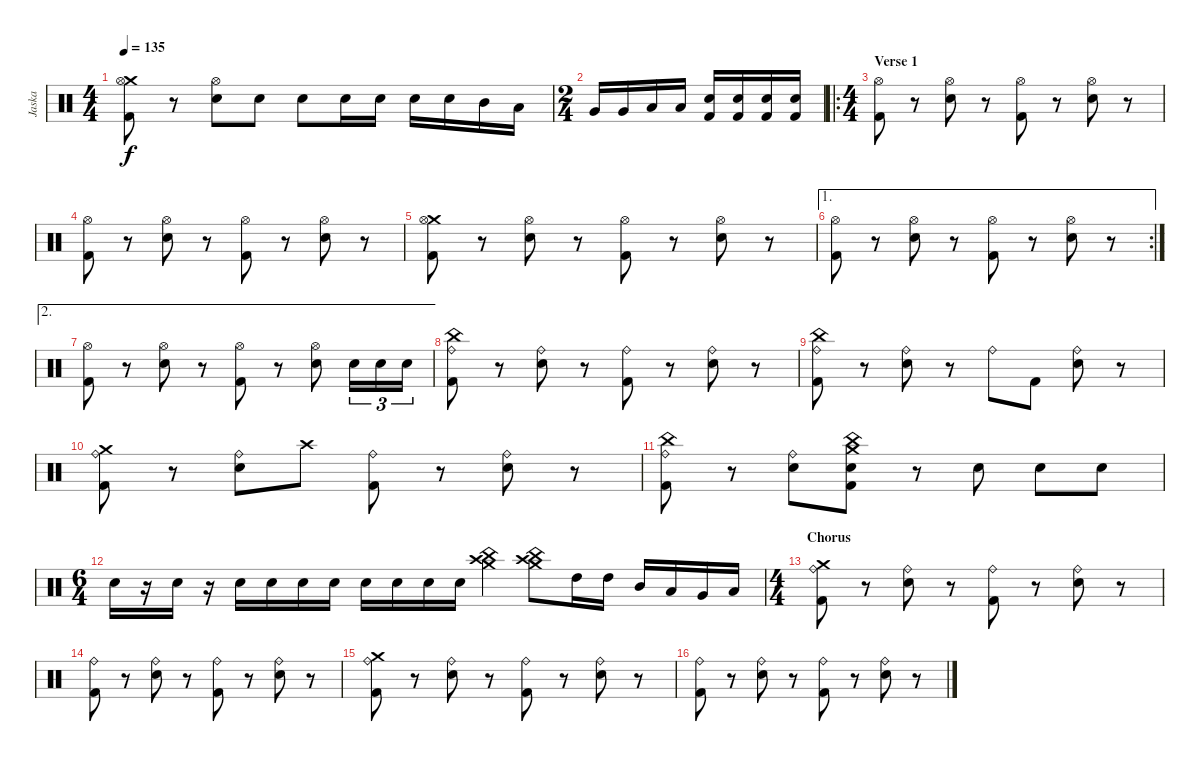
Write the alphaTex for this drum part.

\track ("Jaska" "Jaska") {instrument percussion}
\staff {score}
\articulation defaults
\ts (4 4)
\tempo 135
\clef neutral
\ks c
("Crash medium (hit)" "Hi-Hat (open)" "Kick (hit) 2").8{dy f} r.8 ("Hi-Hat (open)" "Electric Snare (hit)").8 "Electric Snare (hit)".8 "Electric Snare (hit)".8 "Electric Snare (hit)".16 "Electric Snare (hit)".16 "Electric Snare (hit)".16 "Electric Snare (hit)".16 "Mid Tom (hit)".16 "Low Tom (hit)".16 |
\ts (2 4)
"Very Low Tom (hit)".16 "Very Low Tom (hit)".16 "Low Floor Tom (hit)".16 "Low Floor Tom (hit)".16 ("Snare (hit) 2" "Kick (hit) 2").16 ("Snare (hit) 2" "Kick (hit) 2").16 ("Snare (hit) 2" "Kick (hit) 2").16 ("Snare (hit) 2" "Kick (hit) 2").16 |
\ro
\ts (4 4)
\section ("" "Verse 1")
("Hi-Hat (open)" "Kick (hit) 2").8 r.8 ("Hi-Hat (open)" "Electric Snare (hit)").8 r.8 ("Hi-Hat (open)" "Kick (hit) 2").8 r.8 ("Hi-Hat (open)" "Electric Snare (hit)").8 r.8 |
("Hi-Hat (open)" "Kick (hit) 2").8 r.8 ("Hi-Hat (open)" "Electric Snare (hit)").8 r.8 ("Hi-Hat (open)" "Kick (hit) 2").8 r.8 ("Hi-Hat (open)" "Electric Snare (hit)").8 r.8 |
("Crash medium (hit)" "Hi-Hat (open)" "Kick (hit) 2").8 r.8 ("Hi-Hat (open)" "Electric Snare (hit)").8 r.8 ("Hi-Hat (open)" "Kick (hit) 2").8 r.8 ("Hi-Hat (open)" "Electric Snare (hit)").8 r.8 |
\ae 1
\rc 2
("Hi-Hat (open)" "Kick (hit) 2").8 r.8 ("Hi-Hat (open)" "Electric Snare (hit)").8 r.8 ("Hi-Hat (open)" "Kick (hit) 2").8 r.8 ("Hi-Hat (open)" "Electric Snare (hit)").8 r.8 |
\ae 2
("Hi-Hat (open)" "Kick (hit) 2").8 r.8 ("Hi-Hat (open)" "Electric Snare (hit)").8 r.8 ("Hi-Hat (open)" "Kick (hit) 2").8 r.8 ("Hi-Hat (open)" "Electric Snare (hit)").8 "Electric Snare (hit)".16{tu (3 2)} "Electric Snare (hit)".16{tu (3 2)} "Electric Snare (hit)".16{tu (3 2)} |
("Ride (bell)" "China (hit)" "Kick (hit) 2").8 r.8 ("Ride (bell)" "Snare (hit) 2").8 r.8 ("Ride (bell)" "Kick (hit) 2").8 r.8 ("Ride (bell)" "Snare (hit) 2").8 r.8 |
("Ride (bell)" "China (hit)" "Kick (hit) 2").8 r.8 ("Ride (bell)" "Snare (hit) 2").8 r.8 "Ride (bell)".8 "Kick (hit) 2".8 ("Ride (bell)" "Snare (hit) 2").8 r.8 |
("Ride (bell)" "Crash medium (hit)" "Kick (hit) 2").8 r.8 ("Ride (bell)" "Snare (hit) 2").8 "Crash high (hit)".8 ("Ride (bell)" "Kick (hit) 2").8 r.8 ("Ride (bell)" "Snare (hit) 2").8 r.8 |
("Ride (bell)" "China (hit)" "Kick (hit) 2").8 r.8 ("Ride (bell)" "Snare (hit) 2").8 ("China (hit)" "Crash medium (hit)" "Snare (hit) 2" "Kick (hit) 2").8 r.8 "Electric Snare (hit)".8 "Electric Snare (hit)".8 "Electric Snare (hit)".8 |
\ts (6 4)
"Electric Snare (hit)".16 r.16 "Electric Snare (hit)".16 r.16 "Electric Snare (hit)".16 "Electric Snare (hit)".16 "Electric Snare (hit)".16 "Electric Snare (hit)".16 "Electric Snare (hit)".16 "Electric Snare (hit)".16 "Electric Snare (hit)".16 "Electric Snare (hit)".16 ("Crash high (hit)" "Crash medium (hit)" "China (hit)").4 ("Crash high (hit)" "Crash medium (hit)" "China (hit)").8 "High Tom (hit)".16 "High Tom (hit)".16 "Mid Tom (hit)".16 "Low Tom (hit)".16 "Very Low Tom (hit)".16 "Low Floor Tom (hit)".16 |
\ts (4 4)
\section ("" "Chorus")
("Crash medium (hit)" "Ride (bell)" "Kick (hit) 2").8 r.8 ("Ride (bell)" "Snare (hit) 2").8 r.8 ("Ride (bell)" "Kick (hit) 2").8 r.8 ("Ride (bell)" "Snare (hit) 2").8 r.8 |
("Ride (bell)" "Kick (hit) 2").8 r.8 ("Ride (bell)" "Snare (hit) 2").8 r.8 ("Ride (bell)" "Kick (hit) 2").8 r.8 ("Ride (bell)" "Snare (hit) 2").8 r.8 |
("Crash medium (hit)" "Ride (bell)" "Kick (hit) 2").8 r.8 ("Ride (bell)" "Snare (hit) 2").8 r.8 ("Ride (bell)" "Kick (hit) 2").8 r.8 ("Ride (bell)" "Snare (hit) 2").8 r.8 |
("Ride (bell)" "Kick (hit) 2").8 r.8 ("Ride (bell)" "Snare (hit) 2").8 r.8 ("Ride (bell)" "Kick (hit) 2").8 r.8 ("Ride (bell)" "Snare (hit) 2").8 r.8
